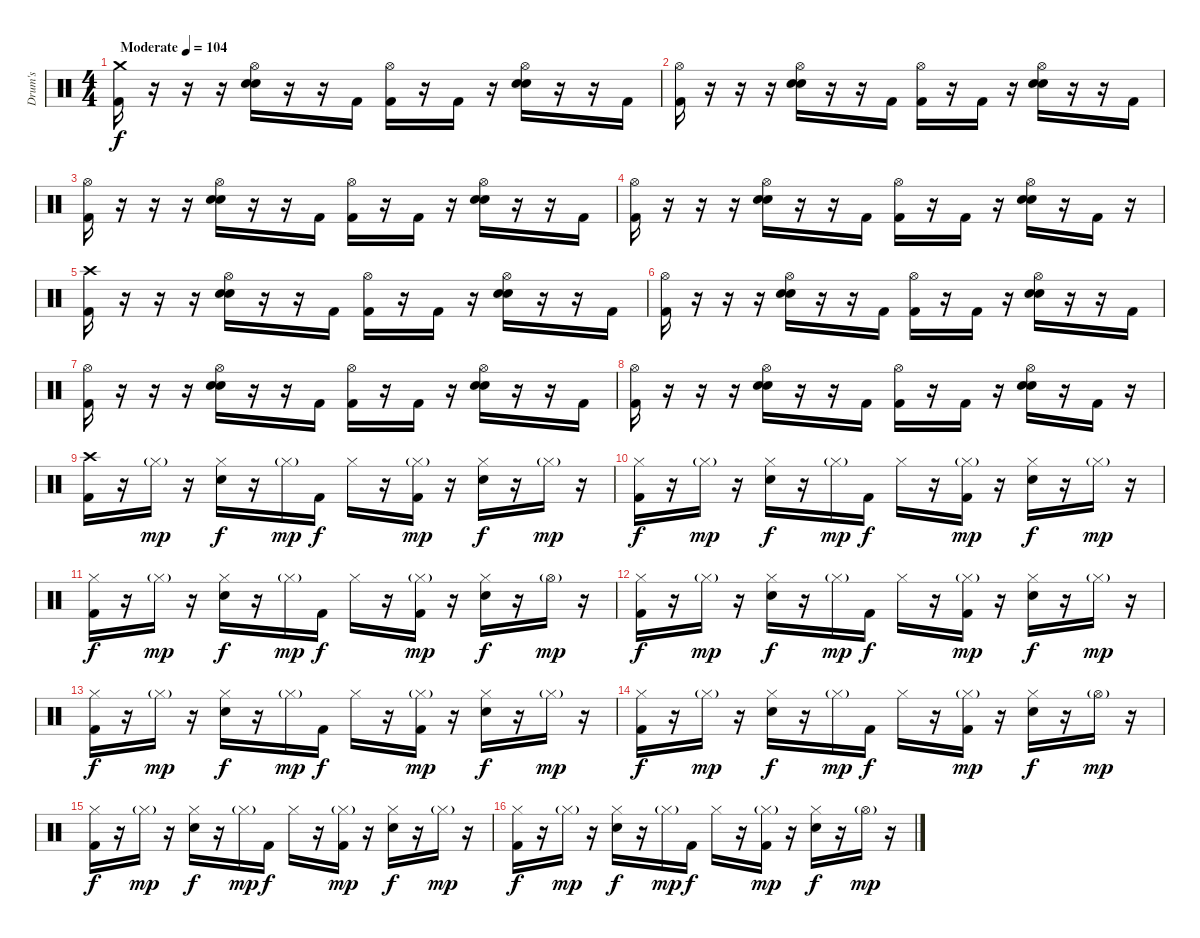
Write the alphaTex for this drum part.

\track ("Drum's" "Drum's") {instrument percussion}
\staff {score}
\articulation defaults
\ts (4 4)
\tempo (104 "Moderate")
\clef neutral
\ks c
("Crash medium (hit)" "Kick (hit) 2").16{dy f} r.16 r.16 r.16 ("Hi-Hat (open)" "Electric Snare (hit)" "Snare (hit) 2").16 r.16 r.16 "Kick (hit) 2".16 ("Hi-Hat (open)" "Kick (hit) 2").16 r.16 "Kick (hit) 2".16 r.16 ("Hi-Hat (open)" "Electric Snare (hit)" "Snare (hit) 2").16 r.16 r.16 "Kick (hit) 2".16 |
("Hi-Hat (open)" "Kick (hit) 2").16 r.16 r.16 r.16 ("Hi-Hat (open)" "Electric Snare (hit)" "Snare (hit) 2").16 r.16 r.16 "Kick (hit) 2".16 ("Hi-Hat (open)" "Kick (hit) 2").16 r.16 "Kick (hit) 2".16 r.16 ("Hi-Hat (open)" "Electric Snare (hit)" "Snare (hit) 2").16 r.16 r.16 "Kick (hit) 2".16 |
("Hi-Hat (open)" "Kick (hit) 2").16 r.16 r.16 r.16 ("Hi-Hat (open)" "Electric Snare (hit)" "Snare (hit) 2").16 r.16 r.16 "Kick (hit) 2".16 ("Hi-Hat (open)" "Kick (hit) 2").16 r.16 "Kick (hit) 2".16 r.16 ("Hi-Hat (open)" "Electric Snare (hit)" "Snare (hit) 2").16 r.16 r.16 "Kick (hit) 2".16 |
("Hi-Hat (open)" "Kick (hit) 2").16 r.16 r.16 r.16 ("Hi-Hat (open)" "Electric Snare (hit)" "Snare (hit) 2").16 r.16 r.16 "Kick (hit) 2".16 ("Hi-Hat (open)" "Kick (hit) 2").16 r.16 "Kick (hit) 2".16 r.16 ("Hi-Hat (open)" "Electric Snare (hit)" "Snare (hit) 2").16 r.16 "Kick (hit) 2".16 r.16 |
("Crash high (hit)" "Kick (hit) 2").16 r.16 r.16 r.16 ("Hi-Hat (open)" "Electric Snare (hit)" "Snare (hit) 2").16 r.16 r.16 "Kick (hit) 2".16 ("Hi-Hat (open)" "Kick (hit) 2").16 r.16 "Kick (hit) 2".16 r.16 ("Hi-Hat (open)" "Electric Snare (hit)" "Snare (hit) 2").16 r.16 r.16 "Kick (hit) 2".16 |
("Hi-Hat (open)" "Kick (hit) 2").16 r.16 r.16 r.16 ("Hi-Hat (open)" "Electric Snare (hit)" "Snare (hit) 2").16 r.16 r.16 "Kick (hit) 2".16 ("Hi-Hat (open)" "Kick (hit) 2").16 r.16 "Kick (hit) 2".16 r.16 ("Hi-Hat (open)" "Electric Snare (hit)" "Snare (hit) 2").16 r.16 r.16 "Kick (hit) 2".16 |
("Hi-Hat (open)" "Kick (hit) 2").16 r.16 r.16 r.16 ("Hi-Hat (open)" "Electric Snare (hit)" "Snare (hit) 2").16 r.16 r.16 "Kick (hit) 2".16 ("Hi-Hat (open)" "Kick (hit) 2").16 r.16 "Kick (hit) 2".16 r.16 ("Hi-Hat (open)" "Electric Snare (hit)" "Snare (hit) 2").16 r.16 r.16 "Kick (hit) 2".16 |
("Hi-Hat (open)" "Kick (hit) 2").16 r.16 r.16 r.16 ("Hi-Hat (open)" "Electric Snare (hit)" "Snare (hit) 2").16 r.16 r.16 "Kick (hit) 2".16 ("Hi-Hat (open)" "Kick (hit) 2").16 r.16 "Kick (hit) 2".16 r.16 ("Hi-Hat (open)" "Electric Snare (hit)" "Snare (hit) 2").16 r.16 "Kick (hit) 2".16 r.16 |
("Crash high (hit)" "Kick (hit) 2").16 r.16 "Hi-Hat (closed)"{g}.16{dy mp} r.16 ("Hi-Hat (closed)" "Snare (hit) 2").16{dy f} r.16 "Hi-Hat (closed)"{g}.16{dy mp} "Kick (hit) 2".16{dy f} "Hi-Hat (closed)".16 r.16 ("Hi-Hat (closed)"{g} "Kick (hit) 2").16{dy mp} r.16 ("Hi-Hat (closed)" "Snare (hit) 2").16{dy f} r.16 "Hi-Hat (closed)"{g}.16{dy mp} r.16 |
("Hi-Hat (closed)" "Kick (hit) 2").16{dy f} r.16 "Hi-Hat (closed)"{g}.16{dy mp} r.16 ("Hi-Hat (closed)" "Snare (hit) 2").16{dy f} r.16 "Hi-Hat (closed)"{g}.16{dy mp} "Kick (hit) 2".16{dy f} "Hi-Hat (closed)".16 r.16 ("Hi-Hat (closed)"{g} "Kick (hit) 2").16{dy mp} r.16 ("Hi-Hat (closed)" "Snare (hit) 2").16{dy f} r.16 "Hi-Hat (closed)"{g}.16{dy mp} r.16 |
("Hi-Hat (closed)" "Kick (hit) 2").16{dy f} r.16 "Hi-Hat (closed)"{g}.16{dy mp} r.16 ("Hi-Hat (closed)" "Snare (hit) 2").16{dy f} r.16 "Hi-Hat (closed)"{g}.16{dy mp} "Kick (hit) 2".16{dy f} "Hi-Hat (closed)".16 r.16 ("Hi-Hat (closed)"{g} "Kick (hit) 2").16{dy mp} r.16 ("Hi-Hat (closed)" "Snare (hit) 2").16{dy f} r.16 "Hi-Hat (open)"{g}.16{dy mp} r.16 |
("Hi-Hat (closed)" "Kick (hit) 2").16{dy f} r.16 "Hi-Hat (closed)"{g}.16{dy mp} r.16 ("Hi-Hat (closed)" "Snare (hit) 2").16{dy f} r.16 "Hi-Hat (closed)"{g}.16{dy mp} "Kick (hit) 2".16{dy f} "Hi-Hat (closed)".16 r.16 ("Hi-Hat (closed)"{g} "Kick (hit) 2").16{dy mp} r.16 ("Hi-Hat (closed)" "Snare (hit) 2").16{dy f} r.16 "Hi-Hat (closed)"{g}.16{dy mp} r.16 |
("Hi-Hat (closed)" "Kick (hit) 2").16{dy f} r.16 "Hi-Hat (closed)"{g}.16{dy mp} r.16 ("Hi-Hat (closed)" "Snare (hit) 2").16{dy f} r.16 "Hi-Hat (closed)"{g}.16{dy mp} "Kick (hit) 2".16{dy f} "Hi-Hat (closed)".16 r.16 ("Hi-Hat (closed)"{g} "Kick (hit) 2").16{dy mp} r.16 ("Hi-Hat (closed)" "Snare (hit) 2").16{dy f} r.16 "Hi-Hat (closed)"{g}.16{dy mp} r.16 |
("Hi-Hat (closed)" "Kick (hit) 2").16{dy f} r.16 "Hi-Hat (closed)"{g}.16{dy mp} r.16 ("Hi-Hat (closed)" "Snare (hit) 2").16{dy f} r.16 "Hi-Hat (closed)"{g}.16{dy mp} "Kick (hit) 2".16{dy f} "Hi-Hat (closed)".16 r.16 ("Hi-Hat (closed)"{g} "Kick (hit) 2").16{dy mp} r.16 ("Hi-Hat (closed)" "Snare (hit) 2").16{dy f} r.16 "Hi-Hat (open)"{g}.16{dy mp} r.16 |
("Hi-Hat (closed)" "Kick (hit) 2").16{dy f} r.16 "Hi-Hat (closed)"{g}.16{dy mp} r.16 ("Hi-Hat (closed)" "Snare (hit) 2").16{dy f} r.16 "Hi-Hat (closed)"{g}.16{dy mp} "Kick (hit) 2".16{dy f} "Hi-Hat (closed)".16 r.16 ("Hi-Hat (closed)"{g} "Kick (hit) 2").16{dy mp} r.16 ("Hi-Hat (closed)" "Snare (hit) 2").16{dy f} r.16 "Hi-Hat (closed)"{g}.16{dy mp} r.16 |
("Hi-Hat (closed)" "Kick (hit) 2").16{dy f} r.16 "Hi-Hat (closed)"{g}.16{dy mp} r.16 ("Hi-Hat (closed)" "Snare (hit) 2").16{dy f} r.16 "Hi-Hat (closed)"{g}.16{dy mp} "Kick (hit) 2".16{dy f} "Hi-Hat (closed)".16 r.16 ("Hi-Hat (closed)"{g} "Kick (hit) 2").16{dy mp} r.16 ("Hi-Hat (closed)" "Snare (hit) 2").16{dy f} r.16 "Hi-Hat (open)"{g}.16{dy mp} r.16
